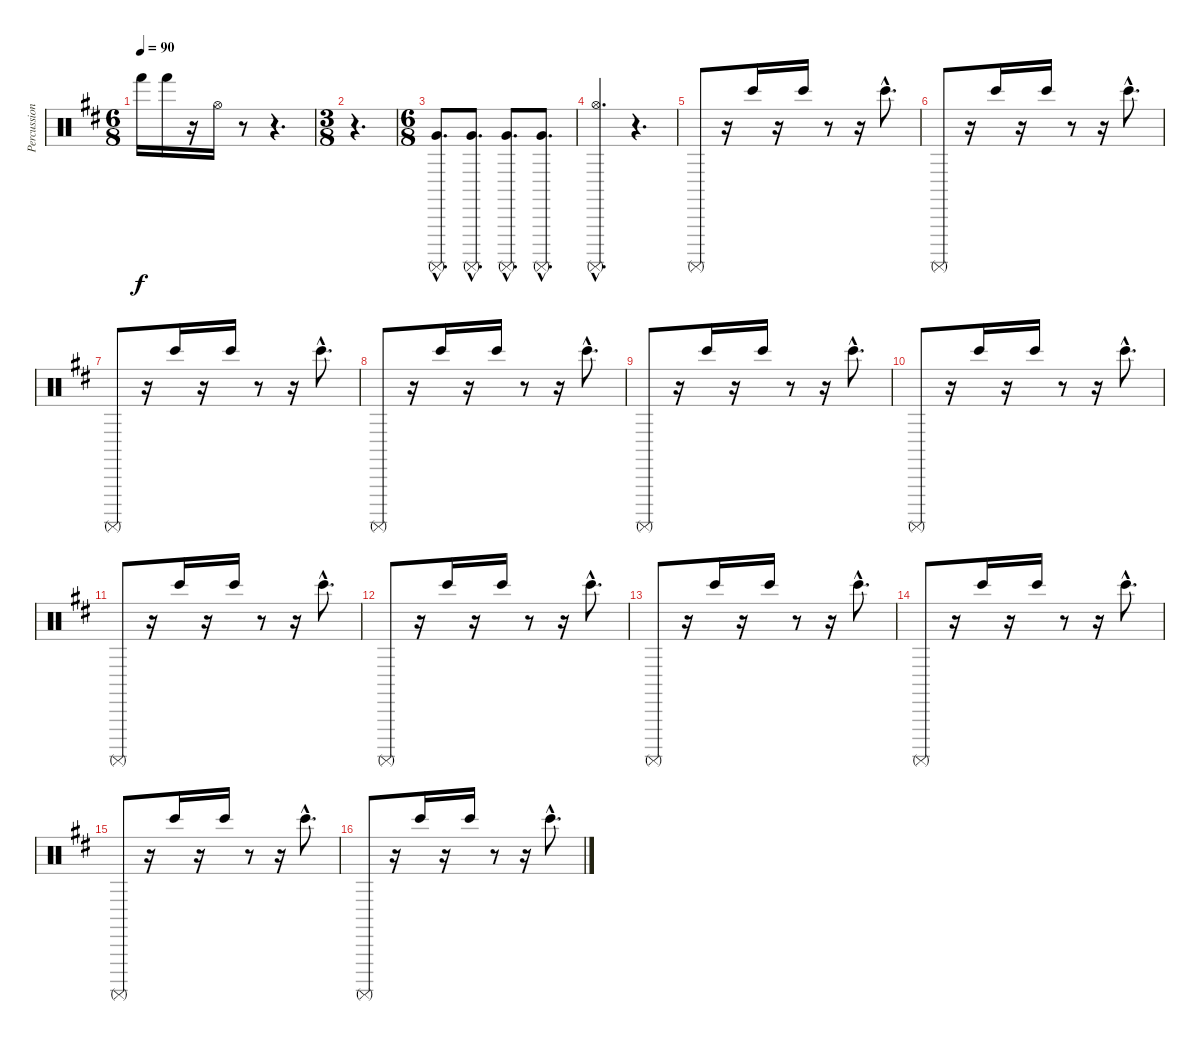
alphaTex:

\track ("Percussioni" "Percussion") {instrument percussion}
\staff {score}
\articulation defaults
\ts (6 8)
\tempo 90
\clef neutral
\ks bminor "Hand (hit)".16{dy f} "Hand (hit)".16
r.16 "Hi-Hat (open)".16 r.8 r.4{d} |
\ts (3 8)
r.4{d} |
\ts (6 8)
("Very Low Tom (hit)"{hac} "Surdo (mute)"{hac}).8{d} ("Very Low Tom (hit)"{hac} "Surdo (mute)"{hac}).8{d} ("Very Low Tom (hit)"{hac} "Surdo (mute)"{hac}).8{d} ("Very Low Tom (hit)"{hac} "Surdo (mute)"{hac}).8{d} |
("Hi-Hat (open)"{hac} "Surdo (mute)"{hac}).4{d} r.4{d} |
"Surdo (mute)".8 r.16 "Bongo High (hit)".16 r.16 "Bongo High (hit)".16 r.8 r.16 "Bongo High (hit)"{hac}.8{d} |
"Surdo (mute)".8 r.16 "Bongo High (hit)".16 r.16 "Bongo High (hit)".16 r.8 r.16 "Bongo High (hit)"{hac}.8{d} |
"Surdo (mute)".8 r.16 "Bongo High (hit)".16 r.16 "Bongo High (hit)".16 r.8 r.16 "Bongo High (hit)"{hac}.8{d} |
"Surdo (mute)".8 r.16 "Bongo High (hit)".16 r.16 "Bongo High (hit)".16 r.8 r.16 "Bongo High (hit)"{hac}.8{d} |
"Surdo (mute)".8 r.16 "Bongo High (hit)".16 r.16 "Bongo High (hit)".16 r.8 r.16 "Bongo High (hit)"{hac}.8{d} |
"Surdo (mute)".8 r.16 "Bongo High (hit)".16 r.16 "Bongo High (hit)".16 r.8 r.16 "Bongo High (hit)"{hac}.8{d} |
"Surdo (mute)".8 r.16 "Bongo High (hit)".16 r.16 "Bongo High (hit)".16 r.8 r.16 "Bongo High (hit)"{hac}.8{d} |
"Surdo (mute)".8 r.16 "Bongo High (hit)".16 r.16 "Bongo High (hit)".16 r.8 r.16 "Bongo High (hit)"{hac}.8{d} |
"Surdo (mute)".8 r.16 "Bongo High (hit)".16 r.16 "Bongo High (hit)".16 r.8 r.16 "Bongo High (hit)"{hac}.8{d} |
"Surdo (mute)".8 r.16 "Bongo High (hit)".16 r.16 "Bongo High (hit)".16 r.8 r.16 "Bongo High (hit)"{hac}.8{d} |
"Surdo (mute)".8 r.16 "Bongo High (hit)".16 r.16 "Bongo High (hit)".16 r.8 r.16 "Bongo High (hit)"{hac}.8{d} |
"Surdo (mute)".8 r.16 "Bongo High (hit)".16 r.16 "Bongo High (hit)".16 r.8 r.16 "Bongo High (hit)"{hac}.8{d}
